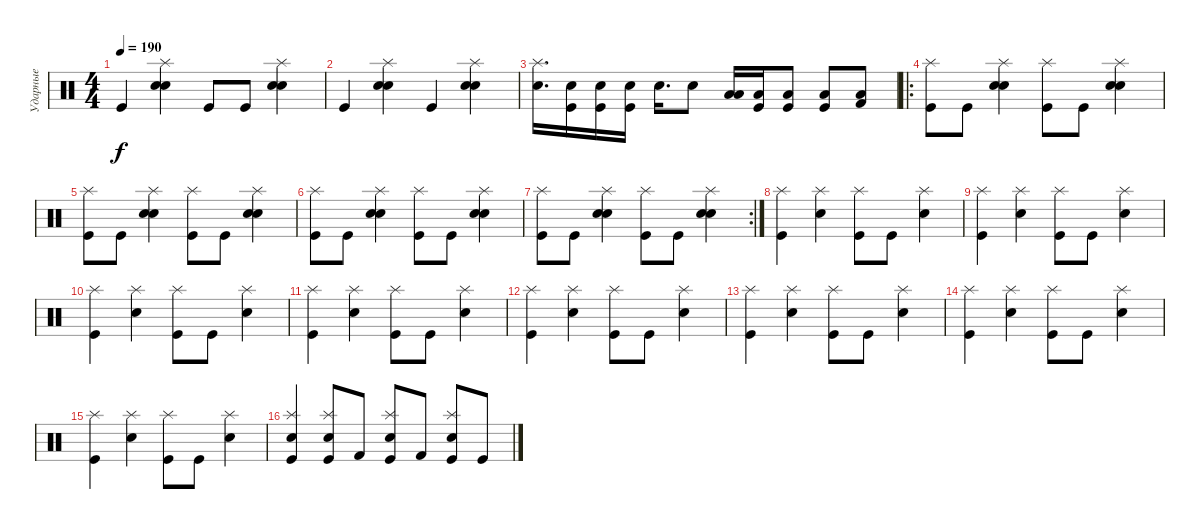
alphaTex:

\track ("Ударные" "Ударные") {instrument percussion}
\staff {score}
\articulation defaults
\ts (4 4)
\tempo 190
\clef neutral
\ks c "Kick (hit)".4{dy f}
("Splash (hit)" "Snare (hit) 2" "Electric Snare (hit)").4 "Kick (hit)".8 "Kick (hit)".8 ("Splash (hit)" "Snare (hit) 2" "Electric Snare (hit)").4 |
"Kick (hit)".4 ("Splash (hit)" "Snare (hit) 2" "Electric Snare (hit)").4 "Kick (hit)".4 ("Splash (hit)" "Snare (hit) 2" "Electric Snare (hit)").4 |
("Electric Snare (hit)" "Splash (hit)").16{d} ("Electric Snare (hit)" "Kick (hit)").16 ("Electric Snare (hit)" "Kick (hit)").16 ("Electric Snare (hit)" "Kick (hit)").16 "Electric Snare (hit)".16{d} "Electric Snare (hit)".8 ("Low Floor Tom (hit)" "Low Floor Tom (hit)").16 ("Low Floor Tom (hit)" "Kick (hit)").16 ("Low Floor Tom (hit)" "Kick (hit)").8 ("Low Floor Tom (hit)" "Kick (hit)").8 ("Low Floor Tom (hit)" "Kick (hit) 2").8 |
\ro
("Splash (hit)" "Kick (hit)").8 "Kick (hit)".8 ("Splash (hit)" "Snare (hit) 2" "Electric Snare (hit)").4 ("Splash (hit)" "Kick (hit)").8 "Kick (hit)".8 ("Splash (hit)" "Snare (hit) 2" "Electric Snare (hit)").4 |
("Splash (hit)" "Kick (hit)").8 "Kick (hit)".8 ("Splash (hit)" "Snare (hit) 2" "Electric Snare (hit)").4 ("Splash (hit)" "Kick (hit)").8 "Kick (hit)".8 ("Splash (hit)" "Snare (hit) 2" "Electric Snare (hit)").4 |
("Splash (hit)" "Kick (hit)").8 "Kick (hit)".8 ("Splash (hit)" "Snare (hit) 2" "Electric Snare (hit)").4 ("Splash (hit)" "Kick (hit)").8 "Kick (hit)".8 ("Splash (hit)" "Snare (hit) 2" "Electric Snare (hit)").4 |
\rc 2
("Splash (hit)" "Kick (hit)").8 "Kick (hit)".8 ("Splash (hit)" "Snare (hit) 2" "Electric Snare (hit)").4 ("Splash (hit)" "Kick (hit)").8 "Kick (hit)".8 ("Splash (hit)" "Snare (hit) 2" "Electric Snare (hit)").4 |
("Splash (hit)" "Kick (hit)").4 ("Splash (hit)" "Electric Snare (hit)").4 ("Splash (hit)" "Kick (hit)").8 "Kick (hit)".8 ("Splash (hit)" "Electric Snare (hit)").4 |
("Splash (hit)" "Kick (hit)").4 ("Splash (hit)" "Electric Snare (hit)").4 ("Splash (hit)" "Kick (hit)").8 "Kick (hit)".8 ("Splash (hit)" "Electric Snare (hit)").4 |
("Splash (hit)" "Kick (hit)").4 ("Splash (hit)" "Electric Snare (hit)").4 ("Splash (hit)" "Kick (hit)").8 "Kick (hit)".8 ("Splash (hit)" "Electric Snare (hit)").4 |
("Splash (hit)" "Kick (hit)").4 ("Splash (hit)" "Electric Snare (hit)").4 ("Splash (hit)" "Kick (hit)").8 "Kick (hit)".8 ("Splash (hit)" "Electric Snare (hit)").4 |
("Splash (hit)" "Kick (hit)").4 ("Splash (hit)" "Electric Snare (hit)").4 ("Splash (hit)" "Kick (hit)").8 "Kick (hit)".8 ("Splash (hit)" "Electric Snare (hit)").4 |
("Splash (hit)" "Kick (hit)").4 ("Splash (hit)" "Electric Snare (hit)").4 ("Splash (hit)" "Kick (hit)").8 "Kick (hit)".8 ("Splash (hit)" "Electric Snare (hit)").4 |
("Splash (hit)" "Kick (hit)").4 ("Splash (hit)" "Electric Snare (hit)").4 ("Splash (hit)" "Kick (hit)").8 "Kick (hit)".8 ("Splash (hit)" "Electric Snare (hit)").4 |
("Splash (hit)" "Kick (hit)").4 ("Splash (hit)" "Electric Snare (hit)").4 ("Splash (hit)" "Kick (hit)").8 "Kick (hit)".8 ("Splash (hit)" "Electric Snare (hit)").4 |
("Splash (hit)" "Electric Snare (hit)" "Kick (hit)").4 ("Splash (hit)" "Electric Snare (hit)" "Kick (hit)").8 "Kick (hit) 2".8 ("Splash (hit)" "Electric Snare (hit)" "Kick (hit)").8 "Kick (hit) 2".8 ("Splash (hit)" "Electric Snare (hit)" "Kick (hit)").8 "Kick (hit)".8
